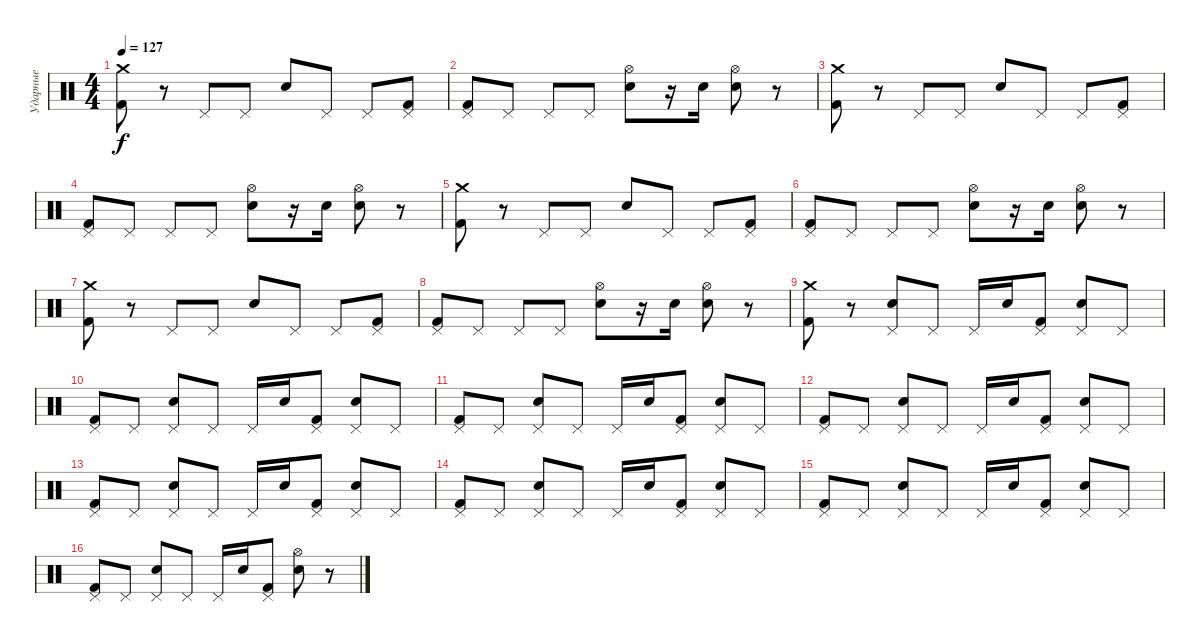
\track ("Ударные" "Ударные") {instrument percussion}
\staff {score}
\articulation defaults
\ts (4 4)
\tempo 127
\clef neutral
\ks c
("Kick (hit) 2" "Crash medium (hit)").8{dy f} r.8 "Pedal Hi-Hat (hit)".8 "Pedal Hi-Hat (hit)".8 "Electric Snare (hit)".8 "Pedal Hi-Hat (hit)".8 "Pedal Hi-Hat (hit)".8 ("Kick (hit) 2" "Pedal Hi-Hat (hit)").8 |
("Pedal Hi-Hat (hit)" "Kick (hit) 2").8 "Pedal Hi-Hat (hit)".8 "Pedal Hi-Hat (hit)".8 "Pedal Hi-Hat (hit)".8 ("Hi-Hat (open)" "Electric Snare (hit)").8 r.16 "Electric Snare (hit)".16 ("Hi-Hat (open)" "Electric Snare (hit)").8 r.8 |
("Crash medium (hit)" "Kick (hit) 2").8 r.8 "Pedal Hi-Hat (hit)".8 "Pedal Hi-Hat (hit)".8 "Electric Snare (hit)".8 "Pedal Hi-Hat (hit)".8 "Pedal Hi-Hat (hit)".8 ("Kick (hit) 2" "Pedal Hi-Hat (hit)").8 |
("Pedal Hi-Hat (hit)" "Kick (hit) 2").8 "Pedal Hi-Hat (hit)".8 "Pedal Hi-Hat (hit)".8 "Pedal Hi-Hat (hit)".8 ("Electric Snare (hit)" "Hi-Hat (open)").8 r.16 "Electric Snare (hit)".16 ("Electric Snare (hit)" "Hi-Hat (open)").8 r.8 |
("Kick (hit) 2" "Crash medium (hit)").8 r.8 "Pedal Hi-Hat (hit)".8 "Pedal Hi-Hat (hit)".8 "Electric Snare (hit)".8 "Pedal Hi-Hat (hit)".8 "Pedal Hi-Hat (hit)".8 ("Kick (hit) 2" "Pedal Hi-Hat (hit)").8 |
("Kick (hit) 2" "Pedal Hi-Hat (hit)").8 "Pedal Hi-Hat (hit)".8 "Pedal Hi-Hat (hit)".8 "Pedal Hi-Hat (hit)".8 ("Hi-Hat (open)" "Electric Snare (hit)").8 r.16 "Electric Snare (hit)".16 ("Hi-Hat (open)" "Electric Snare (hit)").8 r.8 |
("Crash medium (hit)" "Kick (hit) 2").8 r.8 "Pedal Hi-Hat (hit)".8 "Pedal Hi-Hat (hit)".8 "Electric Snare (hit)".8 "Pedal Hi-Hat (hit)".8 "Pedal Hi-Hat (hit)".8 ("Kick (hit) 2" "Pedal Hi-Hat (hit)").8 |
("Pedal Hi-Hat (hit)" "Kick (hit) 2").8 "Pedal Hi-Hat (hit)".8 "Pedal Hi-Hat (hit)".8 "Pedal Hi-Hat (hit)".8 ("Electric Snare (hit)" "Hi-Hat (open)").8 r.16 "Electric Snare (hit)".16 ("Hi-Hat (open)" "Electric Snare (hit)").8 r.8 |
("Crash medium (hit)" "Kick (hit) 2").8 r.8 ("Pedal Hi-Hat (hit)" "Electric Snare (hit)").8 "Pedal Hi-Hat (hit)".8 "Pedal Hi-Hat (hit)".16 "Electric Snare (hit)".16 ("Kick (hit) 2" "Pedal Hi-Hat (hit)").8 ("Pedal Hi-Hat (hit)" "Electric Snare (hit)").8 "Pedal Hi-Hat (hit)".8 |
("Kick (hit) 2" "Pedal Hi-Hat (hit)").8 "Pedal Hi-Hat (hit)".8 ("Electric Snare (hit)" "Pedal Hi-Hat (hit)").8 "Pedal Hi-Hat (hit)".8 "Pedal Hi-Hat (hit)".16 "Electric Snare (hit)".16 ("Kick (hit) 2" "Pedal Hi-Hat (hit)").8 ("Pedal Hi-Hat (hit)" "Electric Snare (hit)").8 "Pedal Hi-Hat (hit)".8 |
("Pedal Hi-Hat (hit)" "Kick (hit) 2").8 "Pedal Hi-Hat (hit)".8 ("Electric Snare (hit)" "Pedal Hi-Hat (hit)").8 "Pedal Hi-Hat (hit)".8 "Pedal Hi-Hat (hit)".16 "Electric Snare (hit)".16 ("Kick (hit) 2" "Pedal Hi-Hat (hit)").8 ("Pedal Hi-Hat (hit)" "Electric Snare (hit)").8 "Pedal Hi-Hat (hit)".8 |
("Kick (hit) 2" "Pedal Hi-Hat (hit)").8 "Pedal Hi-Hat (hit)".8 ("Pedal Hi-Hat (hit)" "Electric Snare (hit)").8 "Pedal Hi-Hat (hit)".8 "Pedal Hi-Hat (hit)".16 "Electric Snare (hit)".16 ("Kick (hit) 2" "Pedal Hi-Hat (hit)").8 ("Pedal Hi-Hat (hit)" "Electric Snare (hit)").8 "Pedal Hi-Hat (hit)".8 |
("Kick (hit) 2" "Pedal Hi-Hat (hit)").8 "Pedal Hi-Hat (hit)".8 ("Electric Snare (hit)" "Pedal Hi-Hat (hit)").8 "Pedal Hi-Hat (hit)".8 "Pedal Hi-Hat (hit)".16 "Electric Snare (hit)".16 ("Kick (hit) 2" "Pedal Hi-Hat (hit)").8 ("Pedal Hi-Hat (hit)" "Electric Snare (hit)").8 "Pedal Hi-Hat (hit)".8 |
("Kick (hit) 2" "Pedal Hi-Hat (hit)").8 "Pedal Hi-Hat (hit)".8 ("Pedal Hi-Hat (hit)" "Electric Snare (hit)").8 "Pedal Hi-Hat (hit)".8 "Pedal Hi-Hat (hit)".16 "Electric Snare (hit)".16 ("Kick (hit) 2" "Pedal Hi-Hat (hit)").8 ("Pedal Hi-Hat (hit)" "Electric Snare (hit)").8 "Pedal Hi-Hat (hit)".8 |
("Kick (hit) 2" "Pedal Hi-Hat (hit)").8 "Pedal Hi-Hat (hit)".8 ("Pedal Hi-Hat (hit)" "Electric Snare (hit)").8 "Pedal Hi-Hat (hit)".8 "Pedal Hi-Hat (hit)".16 "Electric Snare (hit)".16 ("Kick (hit) 2" "Pedal Hi-Hat (hit)").8 ("Electric Snare (hit)" "Pedal Hi-Hat (hit)").8 "Pedal Hi-Hat (hit)".8 |
("Pedal Hi-Hat (hit)" "Kick (hit) 2").8 "Pedal Hi-Hat (hit)".8 ("Pedal Hi-Hat (hit)" "Electric Snare (hit)").8 "Pedal Hi-Hat (hit)".8 "Pedal Hi-Hat (hit)".16 "Electric Snare (hit)".16 ("Pedal Hi-Hat (hit)" "Kick (hit) 2").8 ("Electric Snare (hit)" "Hi-Hat (open)").8 r.8
